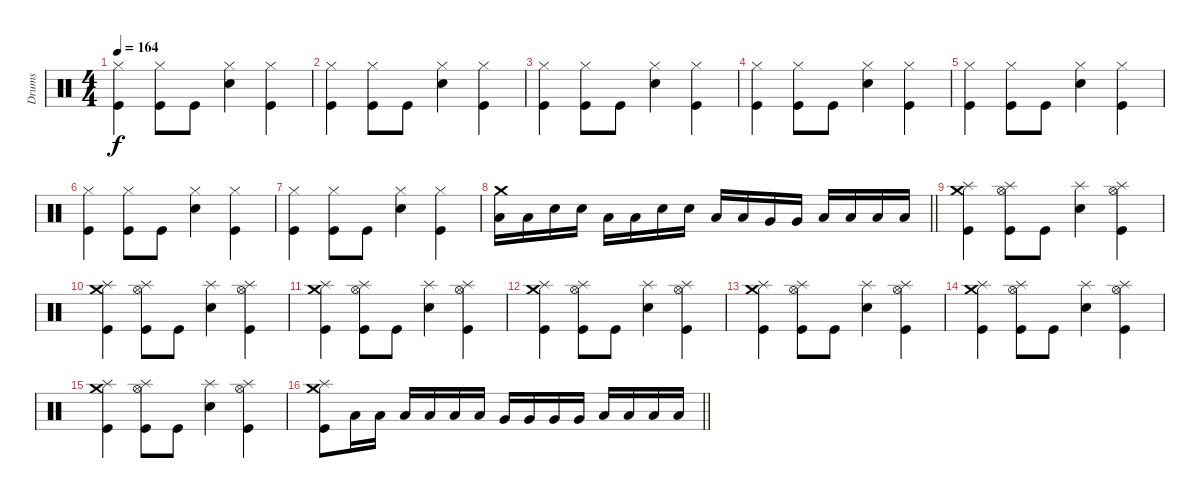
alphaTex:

\track ("Drums" "Drums") {instrument percussion}
\staff {score}
\articulation defaults
\ts (4 4)
\tempo 164
\clef neutral
\ks c
("Hi-Hat (closed)" "Kick (hit)").4{dy f} ("Hi-Hat (closed)" "Kick (hit)").8 "Kick (hit)".8 ("Hi-Hat (closed)" "Electric Snare (hit)").4 ("Hi-Hat (closed)" "Kick (hit)").4 |
("Hi-Hat (closed)" "Kick (hit)").4 ("Hi-Hat (closed)" "Kick (hit)").8 "Kick (hit)".8 ("Hi-Hat (closed)" "Electric Snare (hit)").4 ("Hi-Hat (closed)" "Kick (hit)").4 |
("Hi-Hat (closed)" "Kick (hit)").4 ("Hi-Hat (closed)" "Kick (hit)").8 "Kick (hit)".8 ("Hi-Hat (closed)" "Electric Snare (hit)").4 ("Hi-Hat (closed)" "Kick (hit)").4 |
("Hi-Hat (closed)" "Kick (hit)").4 ("Hi-Hat (closed)" "Kick (hit)").8 "Kick (hit)".8 ("Hi-Hat (closed)" "Electric Snare (hit)").4 ("Hi-Hat (closed)" "Kick (hit)").4 |
("Hi-Hat (closed)" "Kick (hit)").4 ("Hi-Hat (closed)" "Kick (hit)").8 "Kick (hit)".8 ("Hi-Hat (closed)" "Electric Snare (hit)").4 ("Hi-Hat (closed)" "Kick (hit)").4 |
("Hi-Hat (closed)" "Kick (hit)").4 ("Hi-Hat (closed)" "Kick (hit)").8 "Kick (hit)".8 ("Hi-Hat (closed)" "Electric Snare (hit)").4 ("Hi-Hat (closed)" "Kick (hit)").4 |
("Hi-Hat (closed)" "Kick (hit)").4 ("Hi-Hat (closed)" "Kick (hit)").8 "Kick (hit)".8 ("Hi-Hat (closed)" "Electric Snare (hit)").4 ("Hi-Hat (closed)" "Kick (hit)").4 |
\barLineRight lightlight
("Crash medium (hit)" "Low Tom (hit)").16 "Low Tom (hit)".16 "Electric Snare (hit)".16 "Electric Snare (hit)".16 "Low Tom (hit)".16 "Low Tom (hit)".16 "Electric Snare (hit)".16 "Electric Snare (hit)".16 "Low Tom (hit)".16 "Low Tom (hit)".16 "Very Low Tom (hit)".16 "Very Low Tom (hit)".16 "Low Floor Tom (hit)".16 "Low Floor Tom (hit)".16 "Low Floor Tom (hit)".16 "Low Floor Tom (hit)".16 |
\section ("" "")
("Crash medium (hit)" "Splash (hit)" "Kick (hit)").4 ("Hi-Hat (open)" "Splash (hit)" "Kick (hit)").8 "Kick (hit)".8 ("Splash (hit)" "Electric Snare (hit)").4 ("Hi-Hat (open)" "Splash (hit)" "Kick (hit)").4 |
("Crash medium (hit)" "Splash (hit)" "Kick (hit)").4 ("Hi-Hat (open)" "Splash (hit)" "Kick (hit)").8 "Kick (hit)".8 ("Splash (hit)" "Electric Snare (hit)").4 ("Hi-Hat (open)" "Splash (hit)" "Kick (hit)").4 |
("Crash medium (hit)" "Splash (hit)" "Kick (hit)").4 ("Hi-Hat (open)" "Splash (hit)" "Kick (hit)").8 "Kick (hit)".8 ("Splash (hit)" "Electric Snare (hit)").4 ("Hi-Hat (open)" "Splash (hit)" "Kick (hit)").4 |
("Crash medium (hit)" "Splash (hit)" "Kick (hit)").4 ("Hi-Hat (open)" "Splash (hit)" "Kick (hit)").8 "Kick (hit)".8 ("Splash (hit)" "Electric Snare (hit)").4 ("Hi-Hat (open)" "Splash (hit)" "Kick (hit)").4 |
("Crash medium (hit)" "Splash (hit)" "Kick (hit)").4 ("Hi-Hat (open)" "Splash (hit)" "Kick (hit)").8 "Kick (hit)".8 ("Splash (hit)" "Electric Snare (hit)").4 ("Hi-Hat (open)" "Splash (hit)" "Kick (hit)").4 |
("Crash medium (hit)" "Splash (hit)" "Kick (hit)").4 ("Hi-Hat (open)" "Splash (hit)" "Kick (hit)").8 "Kick (hit)".8 ("Splash (hit)" "Electric Snare (hit)").4 ("Hi-Hat (open)" "Splash (hit)" "Kick (hit)").4 |
("Crash medium (hit)" "Splash (hit)" "Kick (hit)").4 ("Hi-Hat (open)" "Splash (hit)" "Kick (hit)").8 "Kick (hit)".8 ("Splash (hit)" "Electric Snare (hit)").4 ("Hi-Hat (open)" "Splash (hit)" "Kick (hit)").4 |
\barLineRight lightlight
("Crash medium (hit)" "Splash (hit)" "Kick (hit)").8 "Low Tom (hit)".16 "Low Tom (hit)".16 "Low Tom (hit)".16 "Low Tom (hit)".16 "Low Tom (hit)".16 "Low Tom (hit)".16 "Very Low Tom (hit)".16 "Very Low Tom (hit)".16 "Very Low Tom (hit)".16 "Very Low Tom (hit)".16 "Low Floor Tom (hit)".16 "Low Floor Tom (hit)".16 "Low Floor Tom (hit)".16 "Low Floor Tom (hit)".16
